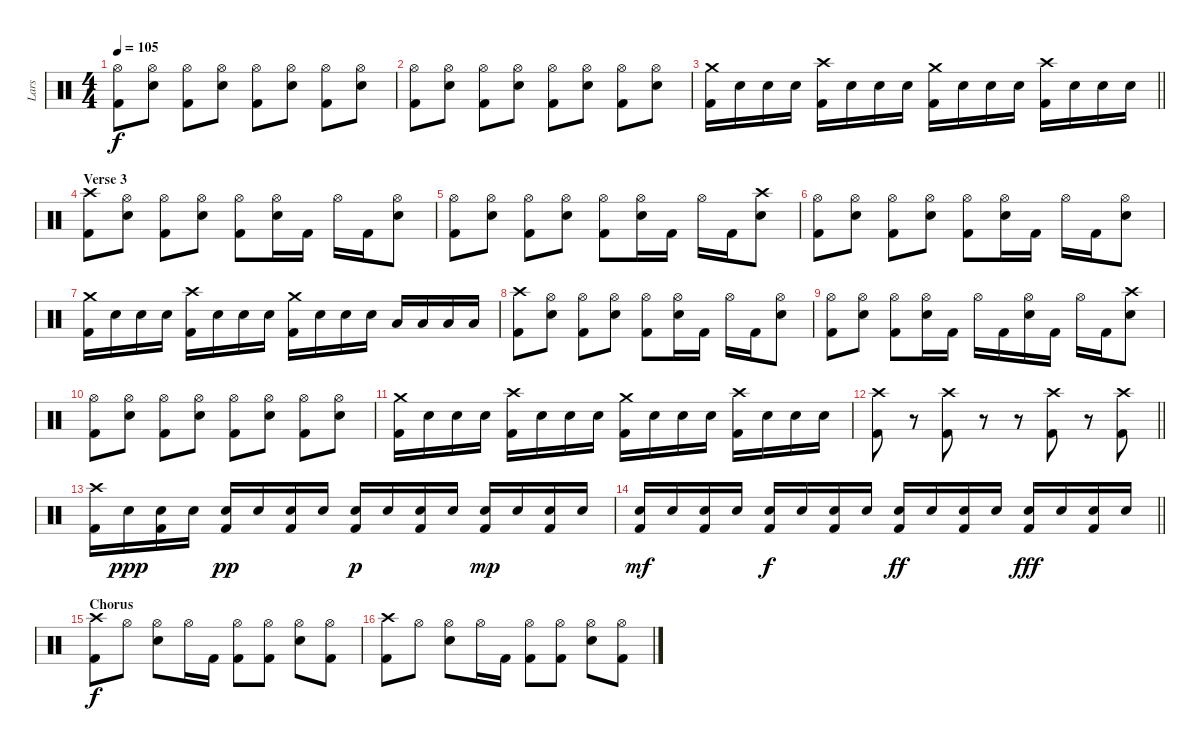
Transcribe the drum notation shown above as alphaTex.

\track ("Lars" "Lars") {instrument percussion}
\staff {score}
\articulation defaults
\ts (4 4)
\tempo 105
\clef neutral
\ks c
("Hi-Hat (open)" "Kick (hit) 2").8{dy f} ("Hi-Hat (open)" "Electric Snare (hit)").8 ("Hi-Hat (open)" "Kick (hit) 2").8 ("Hi-Hat (open)" "Electric Snare (hit)").8 ("Hi-Hat (open)" "Kick (hit) 2").8 ("Hi-Hat (open)" "Electric Snare (hit)").8 ("Hi-Hat (open)" "Kick (hit) 2").8 ("Hi-Hat (open)" "Electric Snare (hit)").8 |
("Hi-Hat (open)" "Kick (hit) 2").8 ("Hi-Hat (open)" "Electric Snare (hit)").8 ("Hi-Hat (open)" "Kick (hit) 2").8 ("Hi-Hat (open)" "Electric Snare (hit)").8 ("Hi-Hat (open)" "Kick (hit) 2").8 ("Hi-Hat (open)" "Electric Snare (hit)").8 ("Hi-Hat (open)" "Kick (hit) 2").8 ("Hi-Hat (open)" "Electric Snare (hit)").8 |
\barLineRight lightlight
("Crash medium (hit)" "Kick (hit) 2").16 "Electric Snare (hit)".16 "Electric Snare (hit)".16 "Electric Snare (hit)".16 ("Crash high (hit)" "Kick (hit) 2").16 "Electric Snare (hit)".16 "Electric Snare (hit)".16 "Electric Snare (hit)".16 ("Crash medium (hit)" "Kick (hit) 2").16 "Electric Snare (hit)".16 "Electric Snare (hit)".16 "Electric Snare (hit)".16 ("Crash high (hit)" "Kick (hit) 2").16 "Electric Snare (hit)".16 "Electric Snare (hit)".16 "Electric Snare (hit)".16 |
\section ("" "Verse 3")
("Crash high (hit)" "Kick (hit) 2").8 ("Hi-Hat (open)" "Electric Snare (hit)").8 ("Hi-Hat (open)" "Kick (hit) 2").8 ("Hi-Hat (open)" "Electric Snare (hit)").8 ("Hi-Hat (open)" "Kick (hit) 2").8 ("Hi-Hat (open)" "Electric Snare (hit)").16 "Kick (hit) 2".16 "Hi-Hat (open)".16 "Kick (hit) 2".16 ("Hi-Hat (open)" "Electric Snare (hit)").8 |
("Hi-Hat (open)" "Kick (hit) 2").8 ("Hi-Hat (open)" "Electric Snare (hit)").8 ("Hi-Hat (open)" "Kick (hit) 2").8 ("Hi-Hat (open)" "Electric Snare (hit)").8 ("Hi-Hat (open)" "Kick (hit) 2").8 ("Hi-Hat (open)" "Electric Snare (hit)").16 "Kick (hit) 2".16 "Hi-Hat (open)".16 "Kick (hit) 2".16 ("Crash high (hit)" "Electric Snare (hit)").8 |
("Hi-Hat (open)" "Kick (hit) 2").8 ("Hi-Hat (open)" "Electric Snare (hit)").8 ("Hi-Hat (open)" "Kick (hit) 2").8 ("Hi-Hat (open)" "Electric Snare (hit)").8 ("Hi-Hat (open)" "Kick (hit) 2").8 ("Hi-Hat (open)" "Electric Snare (hit)").16 "Kick (hit) 2".16 "Hi-Hat (open)".16 "Kick (hit) 2".16 ("Hi-Hat (open)" "Electric Snare (hit)").8 |
("Crash medium (hit)" "Kick (hit) 2").16 "Electric Snare (hit)".16 "Electric Snare (hit)".16 "Electric Snare (hit)".16 ("Crash high (hit)" "Kick (hit) 2").16 "Electric Snare (hit)".16 "Electric Snare (hit)".16 "Electric Snare (hit)".16 ("Crash medium (hit)" "Kick (hit) 2").16 "Electric Snare (hit)".16 "Electric Snare (hit)".16 "Electric Snare (hit)".16 "Low Tom (hit)".16 "Low Tom (hit)".16 "Low Floor Tom (hit)".16 "Low Floor Tom (hit)".16 |
("Crash high (hit)" "Kick (hit) 2").8 ("Hi-Hat (open)" "Electric Snare (hit)").8 ("Hi-Hat (open)" "Kick (hit) 2").8 ("Hi-Hat (open)" "Electric Snare (hit)").8 ("Hi-Hat (open)" "Kick (hit) 2").8 ("Hi-Hat (open)" "Electric Snare (hit)").16 "Kick (hit) 2".16 "Hi-Hat (open)".16 "Kick (hit) 2".16 ("Hi-Hat (open)" "Electric Snare (hit)").8 |
("Hi-Hat (open)" "Kick (hit) 2").8 ("Hi-Hat (open)" "Electric Snare (hit)").8 ("Hi-Hat (open)" "Kick (hit) 2").8 ("Hi-Hat (open)" "Electric Snare (hit)").16 "Kick (hit) 2".16 "Hi-Hat (open)".16 "Kick (hit) 2".16 ("Hi-Hat (open)" "Electric Snare (hit)").16 "Kick (hit) 2".16 "Hi-Hat (open)".16 "Kick (hit) 2".16 ("Crash high (hit)" "Electric Snare (hit)").8 |
("Hi-Hat (open)" "Kick (hit) 2").8 ("Hi-Hat (open)" "Electric Snare (hit)").8 ("Hi-Hat (open)" "Kick (hit) 2").8 ("Hi-Hat (open)" "Electric Snare (hit)").8 ("Hi-Hat (open)" "Kick (hit) 2").8 ("Hi-Hat (open)" "Electric Snare (hit)").8 ("Hi-Hat (open)" "Kick (hit) 2").8 ("Hi-Hat (open)" "Electric Snare (hit)").8 |
("Crash medium (hit)" "Kick (hit) 2").16 "Electric Snare (hit)".16 "Electric Snare (hit)".16 "Electric Snare (hit)".16 ("Crash high (hit)" "Kick (hit) 2").16 "Electric Snare (hit)".16 "Electric Snare (hit)".16 "Electric Snare (hit)".16 ("Crash medium (hit)" "Kick (hit) 2").16 "Electric Snare (hit)".16 "Electric Snare (hit)".16 "Electric Snare (hit)".16 ("Crash high (hit)" "Kick (hit) 2").16 "Electric Snare (hit)".16 "Electric Snare (hit)".16 "Electric Snare (hit)".16 |
\barLineRight lightlight
("Crash high (hit)" "Kick (hit) 2").8 r.8 ("Crash high (hit)" "Kick (hit) 2").8 r.8 r.8 ("Crash high (hit)" "Kick (hit) 2").8 r.8 ("Crash high (hit)" "Kick (hit) 2").8 |
("Crash high (hit)" "Kick (hit) 2").16 "Electric Snare (hit)".16{dy ppp} ("Electric Snare (hit)" "Kick (hit) 2").16 "Electric Snare (hit)".16 ("Electric Snare (hit)" "Kick (hit) 2").16{dy pp} "Electric Snare (hit)".16 ("Electric Snare (hit)" "Kick (hit) 2").16 "Electric Snare (hit)".16 ("Electric Snare (hit)" "Kick (hit) 2").16{dy p} "Electric Snare (hit)".16 ("Electric Snare (hit)" "Kick (hit) 2").16 "Electric Snare (hit)".16 ("Electric Snare (hit)" "Kick (hit) 2").16{dy mp} "Electric Snare (hit)".16 ("Electric Snare (hit)" "Kick (hit) 2").16 "Electric Snare (hit)".16 |
\barLineRight lightlight
("Electric Snare (hit)" "Kick (hit) 2").16{dy mf} "Electric Snare (hit)".16 ("Electric Snare (hit)" "Kick (hit) 2").16 "Electric Snare (hit)".16 ("Electric Snare (hit)" "Kick (hit) 2").16{dy f} "Electric Snare (hit)".16 ("Electric Snare (hit)" "Kick (hit) 2").16 "Electric Snare (hit)".16 ("Electric Snare (hit)" "Kick (hit) 2").16{dy ff} "Electric Snare (hit)".16 ("Electric Snare (hit)" "Kick (hit) 2").16 "Electric Snare (hit)".16 ("Electric Snare (hit)" "Kick (hit) 2").16{dy fff} "Electric Snare (hit)".16 ("Electric Snare (hit)" "Kick (hit) 2").16 "Electric Snare (hit)".16 |
\section ("" "Chorus")
("Crash high (hit)" "Kick (hit) 2").8{dy f} "Hi-Hat (open)".8 ("Hi-Hat (open)" "Electric Snare (hit)").8 "Hi-Hat (open)".16 "Kick (hit) 2".16 ("Hi-Hat (open)" "Kick (hit) 2").8 ("Hi-Hat (open)" "Kick (hit) 2").8 ("Hi-Hat (open)" "Electric Snare (hit)").8 ("Hi-Hat (open)" "Kick (hit) 2").8 |
("Crash high (hit)" "Kick (hit) 2").8 "Hi-Hat (open)".8 ("Hi-Hat (open)" "Electric Snare (hit)").8 "Hi-Hat (open)".16 "Kick (hit) 2".16 ("Hi-Hat (open)" "Kick (hit) 2").8 ("Hi-Hat (open)" "Kick (hit) 2").8 ("Hi-Hat (open)" "Electric Snare (hit)").8 ("Hi-Hat (open)" "Kick (hit) 2").8
